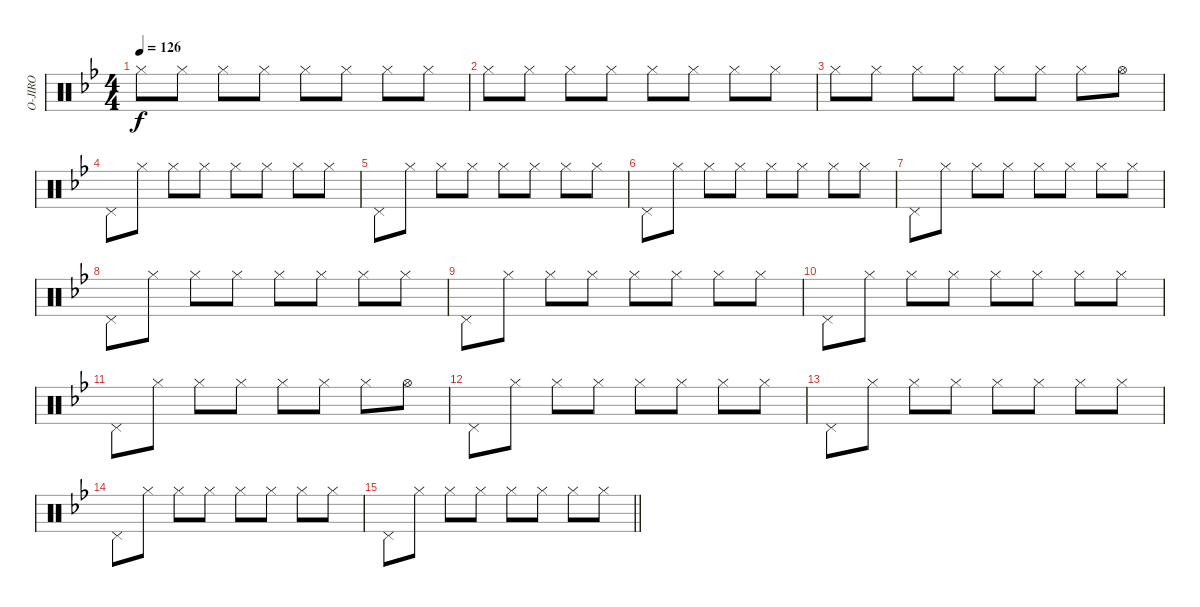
\track ("O-JIRO" "O-JIRO") {instrument percussion}
\staff {score}
\articulation defaults
\ts (4 4)
\tempo 126
\clef neutral
\ks bb "Hi-Hat (closed)".8{dy f} "Hi-Hat (closed)".8 "Hi-Hat (closed)".8 "Hi-Hat (closed)".8 "Hi-Hat (closed)".8 "Hi-Hat (closed)".8 "Hi-Hat (closed)".8 "Hi-Hat (closed)".8
|
"Hi-Hat (closed)".8 "Hi-Hat (closed)".8 "Hi-Hat (closed)".8 "Hi-Hat (closed)".8 "Hi-Hat (closed)".8 "Hi-Hat (closed)".8 "Hi-Hat (closed)".8 "Hi-Hat (closed)".8 |
"Hi-Hat (closed)".8 "Hi-Hat (closed)".8 "Hi-Hat (closed)".8 "Hi-Hat (closed)".8 "Hi-Hat (closed)".8 "Hi-Hat (closed)".8 "Hi-Hat (closed)".8 "Hi-Hat (open)".8 |
"Pedal Hi-Hat (hit)".8 "Hi-Hat (closed)".8 "Hi-Hat (closed)".8 "Hi-Hat (closed)".8 "Hi-Hat (closed)".8 "Hi-Hat (closed)".8 "Hi-Hat (closed)".8 "Hi-Hat (closed)".8 |
"Pedal Hi-Hat (hit)".8 "Hi-Hat (closed)".8 "Hi-Hat (closed)".8 "Hi-Hat (closed)".8 "Hi-Hat (closed)".8 "Hi-Hat (closed)".8 "Hi-Hat (closed)".8 "Hi-Hat (closed)".8 |
"Pedal Hi-Hat (hit)".8 "Hi-Hat (closed)".8 "Hi-Hat (closed)".8 "Hi-Hat (closed)".8 "Hi-Hat (closed)".8 "Hi-Hat (closed)".8 "Hi-Hat (closed)".8 "Hi-Hat (closed)".8 |
"Pedal Hi-Hat (hit)".8 "Hi-Hat (closed)".8 "Hi-Hat (closed)".8 "Hi-Hat (closed)".8 "Hi-Hat (closed)".8 "Hi-Hat (closed)".8 "Hi-Hat (closed)".8 "Hi-Hat (closed)".8 |
"Pedal Hi-Hat (hit)".8 "Hi-Hat (closed)".8 "Hi-Hat (closed)".8 "Hi-Hat (closed)".8 "Hi-Hat (closed)".8 "Hi-Hat (closed)".8 "Hi-Hat (closed)".8 "Hi-Hat (closed)".8 |
"Pedal Hi-Hat (hit)".8 "Hi-Hat (closed)".8 "Hi-Hat (closed)".8 "Hi-Hat (closed)".8 "Hi-Hat (closed)".8 "Hi-Hat (closed)".8 "Hi-Hat (closed)".8 "Hi-Hat (closed)".8 |
"Pedal Hi-Hat (hit)".8 "Hi-Hat (closed)".8 "Hi-Hat (closed)".8 "Hi-Hat (closed)".8 "Hi-Hat (closed)".8 "Hi-Hat (closed)".8 "Hi-Hat (closed)".8 "Hi-Hat (closed)".8 |
"Pedal Hi-Hat (hit)".8 "Hi-Hat (closed)".8 "Hi-Hat (closed)".8 "Hi-Hat (closed)".8 "Hi-Hat (closed)".8 "Hi-Hat (closed)".8 "Hi-Hat (closed)".8 "Hi-Hat (open)".8 |
"Pedal Hi-Hat (hit)".8 "Hi-Hat (closed)".8 "Hi-Hat (closed)".8 "Hi-Hat (closed)".8 "Hi-Hat (closed)".8 "Hi-Hat (closed)".8 "Hi-Hat (closed)".8 "Hi-Hat (closed)".8 |
"Pedal Hi-Hat (hit)".8 "Hi-Hat (closed)".8 "Hi-Hat (closed)".8 "Hi-Hat (closed)".8 "Hi-Hat (closed)".8 "Hi-Hat (closed)".8 "Hi-Hat (closed)".8 "Hi-Hat (closed)".8 |
"Pedal Hi-Hat (hit)".8 "Hi-Hat (closed)".8 "Hi-Hat (closed)".8 "Hi-Hat (closed)".8 "Hi-Hat (closed)".8 "Hi-Hat (closed)".8 "Hi-Hat (closed)".8 "Hi-Hat (closed)".8 |
\barLineRight lightlight "Pedal Hi-Hat (hit)".8 "Hi-Hat (closed)".8 "Hi-Hat (closed)".8 "Hi-Hat (closed)".8 "Hi-Hat (closed)".8 "Hi-Hat (closed)".8 "Hi-Hat (closed)".8 "Hi-Hat (closed)".8
